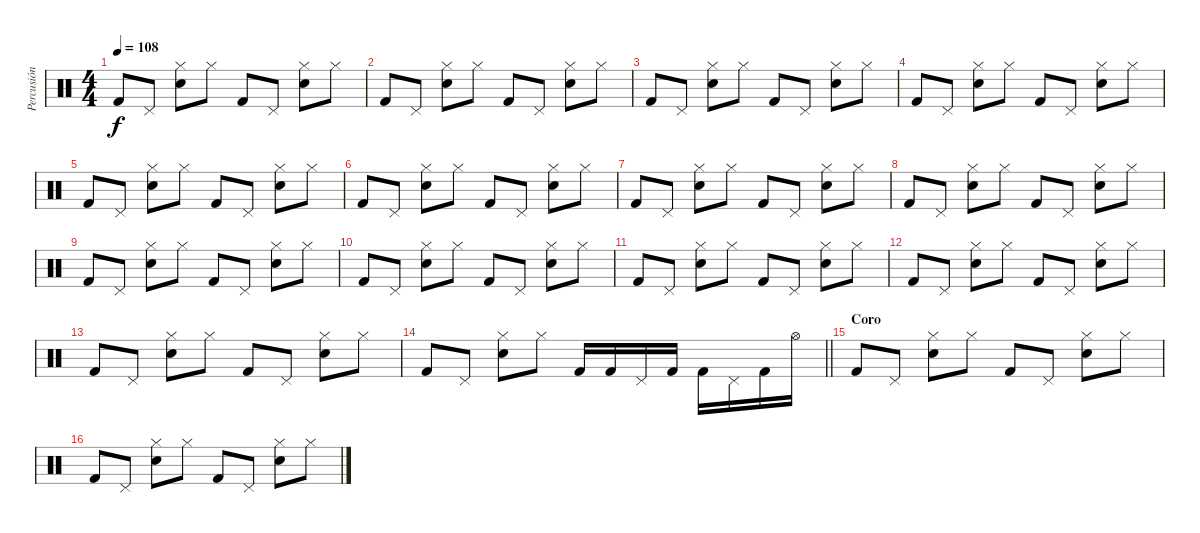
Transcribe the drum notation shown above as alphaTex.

\track ("Percusión" "Percusión") {instrument percussion}
\staff {score}
\articulation defaults
\ts (4 4)
\tempo 108
\clef neutral
\ks c "Kick (hit) 2".8{dy f} "Pedal Hi-Hat (hit)".8
("Electric Snare (hit)" "Hi-Hat (closed)").8 "Hi-Hat (closed)".8 "Kick (hit) 2".8 "Pedal Hi-Hat (hit)".8 ("Electric Snare (hit)" "Hi-Hat (closed)").8 "Hi-Hat (closed)".8 |
"Kick (hit) 2".8 "Pedal Hi-Hat (hit)".8 ("Electric Snare (hit)" "Hi-Hat (closed)").8 "Hi-Hat (closed)".8 "Kick (hit) 2".8 "Pedal Hi-Hat (hit)".8 ("Electric Snare (hit)" "Hi-Hat (closed)").8 "Hi-Hat (closed)".8 |
"Kick (hit) 2".8 "Pedal Hi-Hat (hit)".8 ("Electric Snare (hit)" "Hi-Hat (closed)").8 "Hi-Hat (closed)".8 "Kick (hit) 2".8 "Pedal Hi-Hat (hit)".8 ("Electric Snare (hit)" "Hi-Hat (closed)").8 "Hi-Hat (closed)".8 |
"Kick (hit) 2".8 "Pedal Hi-Hat (hit)".8 ("Electric Snare (hit)" "Hi-Hat (closed)").8 "Hi-Hat (closed)".8 "Kick (hit) 2".8 "Pedal Hi-Hat (hit)".8 ("Electric Snare (hit)" "Hi-Hat (closed)").8 "Hi-Hat (closed)".8 |
"Kick (hit) 2".8 "Pedal Hi-Hat (hit)".8 ("Electric Snare (hit)" "Hi-Hat (closed)").8 "Hi-Hat (closed)".8 "Kick (hit) 2".8 "Pedal Hi-Hat (hit)".8 ("Electric Snare (hit)" "Hi-Hat (closed)").8 "Hi-Hat (closed)".8 |
"Kick (hit) 2".8 "Pedal Hi-Hat (hit)".8 ("Electric Snare (hit)" "Hi-Hat (closed)").8 "Hi-Hat (closed)".8 "Kick (hit) 2".8 "Pedal Hi-Hat (hit)".8 ("Electric Snare (hit)" "Hi-Hat (closed)").8 "Hi-Hat (closed)".8 |
"Kick (hit) 2".8 "Pedal Hi-Hat (hit)".8 ("Electric Snare (hit)" "Hi-Hat (closed)").8 "Hi-Hat (closed)".8 "Kick (hit) 2".8 "Pedal Hi-Hat (hit)".8 ("Electric Snare (hit)" "Hi-Hat (closed)").8 "Hi-Hat (closed)".8 |
"Kick (hit) 2".8 "Pedal Hi-Hat (hit)".8 ("Electric Snare (hit)" "Hi-Hat (closed)").8 "Hi-Hat (closed)".8 "Kick (hit) 2".8 "Pedal Hi-Hat (hit)".8 ("Electric Snare (hit)" "Hi-Hat (closed)").8 "Hi-Hat (closed)".8 |
"Kick (hit) 2".8 "Pedal Hi-Hat (hit)".8 ("Electric Snare (hit)" "Hi-Hat (closed)").8 "Hi-Hat (closed)".8 "Kick (hit) 2".8 "Pedal Hi-Hat (hit)".8 ("Electric Snare (hit)" "Hi-Hat (closed)").8 "Hi-Hat (closed)".8 |
"Kick (hit) 2".8 "Pedal Hi-Hat (hit)".8 ("Electric Snare (hit)" "Hi-Hat (closed)").8 "Hi-Hat (closed)".8 "Kick (hit) 2".8 "Pedal Hi-Hat (hit)".8 ("Electric Snare (hit)" "Hi-Hat (closed)").8 "Hi-Hat (closed)".8 |
"Kick (hit) 2".8 "Pedal Hi-Hat (hit)".8 ("Electric Snare (hit)" "Hi-Hat (closed)").8 "Hi-Hat (closed)".8 "Kick (hit) 2".8 "Pedal Hi-Hat (hit)".8 ("Electric Snare (hit)" "Hi-Hat (closed)").8 "Hi-Hat (closed)".8 |
"Kick (hit) 2".8 "Pedal Hi-Hat (hit)".8 ("Electric Snare (hit)" "Hi-Hat (closed)").8 "Hi-Hat (closed)".8 "Kick (hit) 2".8 "Pedal Hi-Hat (hit)".8 ("Electric Snare (hit)" "Hi-Hat (closed)").8 "Hi-Hat (closed)".8 |
"Kick (hit) 2".8 "Pedal Hi-Hat (hit)".8 ("Electric Snare (hit)" "Hi-Hat (closed)").8 "Hi-Hat (closed)".8 "Kick (hit) 2".8 "Pedal Hi-Hat (hit)".8 ("Electric Snare (hit)" "Hi-Hat (closed)").8 "Hi-Hat (closed)".8 |
\barLineRight lightlight "Kick (hit) 2".8 "Pedal Hi-Hat (hit)".8
("Electric Snare (hit)" "Hi-Hat (closed)").8 "Hi-Hat (closed)".8 "Kick (hit) 2".16 "Kick (hit) 2".16 "Pedal Hi-Hat (hit)".16 "Kick (hit) 2".16 "Kick (hit) 2".16 "Pedal Hi-Hat (hit)".16 "Kick (hit) 2".16 "Hi-Hat (open)".16 |
\section ("" "Coro")
"Kick (hit) 2".8 "Pedal Hi-Hat (hit)".8 ("Electric Snare (hit)" "Hi-Hat (closed)").8 "Hi-Hat (closed)".8 "Kick (hit) 2".8 "Pedal Hi-Hat (hit)".8 ("Electric Snare (hit)" "Hi-Hat (closed)").8 "Hi-Hat (closed)".8 |
"Kick (hit) 2".8 "Pedal Hi-Hat (hit)".8 ("Electric Snare (hit)" "Hi-Hat (closed)").8 "Hi-Hat (closed)".8 "Kick (hit) 2".8 "Pedal Hi-Hat (hit)".8 ("Electric Snare (hit)" "Hi-Hat (closed)").8 "Hi-Hat (closed)".8
